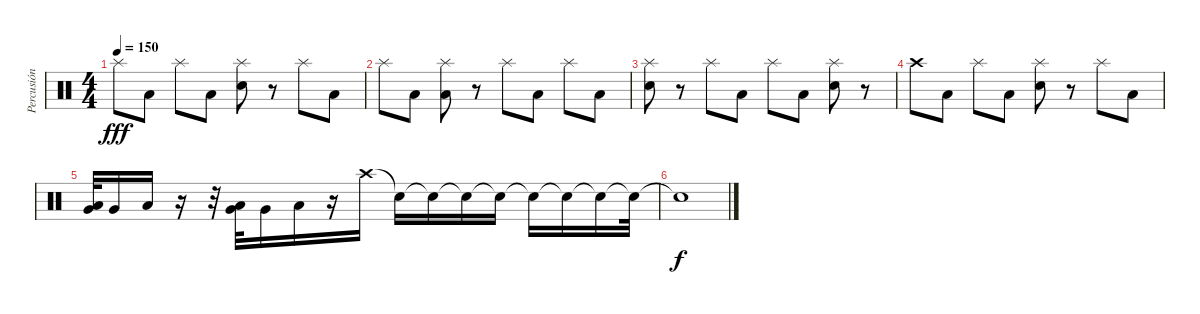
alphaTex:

\track ("Percusión" "Percusión") {instrument percussion}
\staff {score}
\articulation defaults
\ts (4 4)
\tempo 150
\clef neutral
\ks c "Splash (hit)".8{dy fff} "Low Tom (hit)".8 "Splash (hit)".8 "Low Tom (hit)".8
("Splash (hit)" "Snare (hit) 2").8 r.8 "Splash (hit)".8 "Low Tom (hit)".8 |
"Splash (hit)".8 "Low Tom (hit)".8 ("Splash (hit)" "Low Tom (hit)").8 r.8 "Splash (hit)".8 "Low Tom (hit)".8 "Splash (hit)".8 "Low Tom (hit)".8 |
("Splash (hit)" "Snare (hit) 2").8 r.8 "Splash (hit)".8 "Low Tom (hit)".8 "Splash (hit)".8 "Low Tom (hit)".8 ("Splash (hit)" "Snare (hit) 2").8 r.8 |
"Crash high (hit)".8 "Low Tom (hit)".8 "Splash (hit)".8 "Low Tom (hit)".8 ("Splash (hit)" "Snare (hit) 2").8 r.8 "Splash (hit)".8 "Low Tom (hit)".8 |
("Very Low Tom (hit)" "Low Floor Tom (hit)").32 "Very Low Tom (hit)".16 "Low Tom (hit)".16 r.16 r.32 ("Very Low Tom (hit)" "Low Floor Tom (hit)").32 "Very Low Tom (hit)".16 "Low Tom (hit)".16 r.16 "Crash high (hit)".16 "Snare (hit)"{t}.16 "Snare (hit)"{t}.16 "Snare (hit)"{t}.16 "Snare (hit)"{t}.16 "Snare (hit)"{t}.16 "Snare (hit)"{t}.16 "Snare (hit)"{t}.16 "Snare (hit)"{t}.32 |
"Snare (hit)"{t}.1{dy f}
